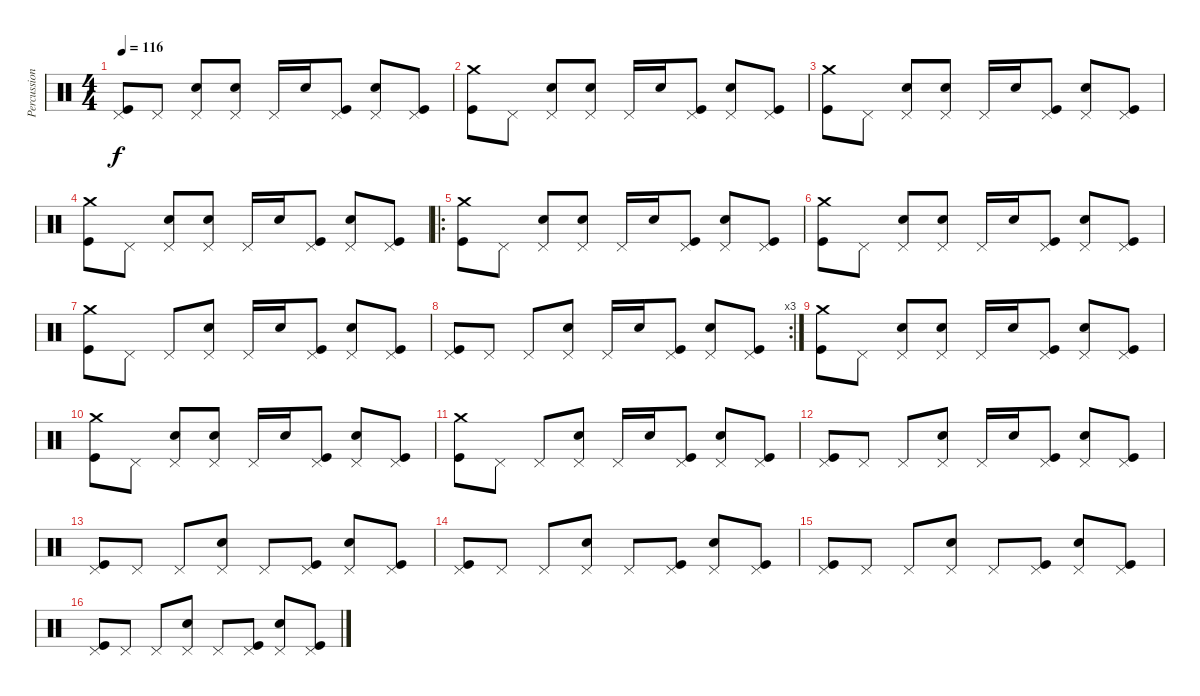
\track ("Percussions" "Percussion") {instrument percussion}
\staff {score}
\articulation defaults
\ts (4 4)
\tempo 116
\clef neutral
\ks c
("Pedal Hi-Hat (hit)" "Kick (hit)").8{dy f} "Pedal Hi-Hat (hit)".8 ("Pedal Hi-Hat (hit)" "Snare (hit) 2").8 ("Pedal Hi-Hat (hit)" "Snare (hit) 2").8 "Pedal Hi-Hat (hit)".16 "Snare (hit) 2".16 ("Pedal Hi-Hat (hit)" "Kick (hit)").8 ("Pedal Hi-Hat (hit)" "Snare (hit) 2").8 ("Pedal Hi-Hat (hit)" "Kick (hit)").8 |
("Crash medium (hit)" "Kick (hit)").8 "Pedal Hi-Hat (hit)".8 ("Pedal Hi-Hat (hit)" "Snare (hit) 2").8 ("Pedal Hi-Hat (hit)" "Snare (hit) 2").8 "Pedal Hi-Hat (hit)".16 "Snare (hit) 2".16 ("Pedal Hi-Hat (hit)" "Kick (hit)").8 ("Pedal Hi-Hat (hit)" "Snare (hit) 2").8 ("Pedal Hi-Hat (hit)" "Kick (hit)").8 |
("Crash medium (hit)" "Kick (hit)").8 "Pedal Hi-Hat (hit)".8 ("Pedal Hi-Hat (hit)" "Snare (hit) 2").8 ("Pedal Hi-Hat (hit)" "Snare (hit) 2").8 "Pedal Hi-Hat (hit)".16 "Snare (hit) 2".16 ("Pedal Hi-Hat (hit)" "Kick (hit)").8 ("Pedal Hi-Hat (hit)" "Snare (hit) 2").8 ("Pedal Hi-Hat (hit)" "Kick (hit)").8 |
("Crash medium (hit)" "Kick (hit)").8 "Pedal Hi-Hat (hit)".8 ("Pedal Hi-Hat (hit)" "Snare (hit) 2").8 ("Pedal Hi-Hat (hit)" "Snare (hit) 2").8 "Pedal Hi-Hat (hit)".16 "Snare (hit) 2".16 ("Pedal Hi-Hat (hit)" "Kick (hit)").8 ("Pedal Hi-Hat (hit)" "Snare (hit) 2").8 ("Pedal Hi-Hat (hit)" "Kick (hit)").8 |
\ro
("Crash medium (hit)" "Kick (hit)").8 "Pedal Hi-Hat (hit)".8 ("Pedal Hi-Hat (hit)" "Snare (hit) 2").8 ("Pedal Hi-Hat (hit)" "Snare (hit) 2").8 "Pedal Hi-Hat (hit)".16 "Snare (hit) 2".16 ("Pedal Hi-Hat (hit)" "Kick (hit)").8 ("Pedal Hi-Hat (hit)" "Snare (hit) 2").8 ("Pedal Hi-Hat (hit)" "Kick (hit)").8 |
("Crash medium (hit)" "Kick (hit)").8 "Pedal Hi-Hat (hit)".8 ("Pedal Hi-Hat (hit)" "Snare (hit) 2").8 ("Pedal Hi-Hat (hit)" "Snare (hit) 2").8 "Pedal Hi-Hat (hit)".16 "Snare (hit) 2".16 ("Pedal Hi-Hat (hit)" "Kick (hit)").8 ("Pedal Hi-Hat (hit)" "Snare (hit) 2").8 ("Pedal Hi-Hat (hit)" "Kick (hit)").8 |
("Crash medium (hit)" "Kick (hit)").8 "Pedal Hi-Hat (hit)".8 "Pedal Hi-Hat (hit)".8 ("Pedal Hi-Hat (hit)" "Snare (hit) 2").8 "Pedal Hi-Hat (hit)".16 "Snare (hit) 2".16 ("Pedal Hi-Hat (hit)" "Kick (hit)").8 ("Pedal Hi-Hat (hit)" "Snare (hit) 2").8 ("Pedal Hi-Hat (hit)" "Kick (hit)").8 |
\rc 3
("Pedal Hi-Hat (hit)" "Kick (hit)").8 "Pedal Hi-Hat (hit)".8 "Pedal Hi-Hat (hit)".8 ("Pedal Hi-Hat (hit)" "Snare (hit) 2").8 "Pedal Hi-Hat (hit)".16 "Snare (hit) 2".16 ("Pedal Hi-Hat (hit)" "Kick (hit)").8 ("Pedal Hi-Hat (hit)" "Snare (hit) 2").8 ("Pedal Hi-Hat (hit)" "Kick (hit)").8 |
("Crash medium (hit)" "Kick (hit)").8 "Pedal Hi-Hat (hit)".8 ("Pedal Hi-Hat (hit)" "Snare (hit) 2").8 ("Pedal Hi-Hat (hit)" "Snare (hit) 2").8 "Pedal Hi-Hat (hit)".16 "Snare (hit) 2".16 ("Pedal Hi-Hat (hit)" "Kick (hit)").8 ("Pedal Hi-Hat (hit)" "Snare (hit) 2").8 ("Pedal Hi-Hat (hit)" "Kick (hit)").8 |
("Crash medium (hit)" "Kick (hit)").8 "Pedal Hi-Hat (hit)".8 ("Pedal Hi-Hat (hit)" "Snare (hit) 2").8 ("Pedal Hi-Hat (hit)" "Snare (hit) 2").8 "Pedal Hi-Hat (hit)".16 "Snare (hit) 2".16 ("Pedal Hi-Hat (hit)" "Kick (hit)").8 ("Pedal Hi-Hat (hit)" "Snare (hit) 2").8 ("Pedal Hi-Hat (hit)" "Kick (hit)").8 |
("Crash medium (hit)" "Kick (hit)").8 "Pedal Hi-Hat (hit)".8 "Pedal Hi-Hat (hit)".8 ("Pedal Hi-Hat (hit)" "Snare (hit) 2").8 "Pedal Hi-Hat (hit)".16 "Snare (hit) 2".16 ("Pedal Hi-Hat (hit)" "Kick (hit)").8 ("Pedal Hi-Hat (hit)" "Snare (hit) 2").8 ("Pedal Hi-Hat (hit)" "Kick (hit)").8 |
("Pedal Hi-Hat (hit)" "Kick (hit)").8 "Pedal Hi-Hat (hit)".8 "Pedal Hi-Hat (hit)".8 ("Pedal Hi-Hat (hit)" "Snare (hit) 2").8 "Pedal Hi-Hat (hit)".16 "Snare (hit) 2".16 ("Pedal Hi-Hat (hit)" "Kick (hit)").8 ("Pedal Hi-Hat (hit)" "Snare (hit) 2").8 ("Pedal Hi-Hat (hit)" "Kick (hit)").8 |
("Pedal Hi-Hat (hit)" "Kick (hit)").8 "Pedal Hi-Hat (hit)".8 "Pedal Hi-Hat (hit)".8 ("Pedal Hi-Hat (hit)" "Snare (hit) 2").8 "Pedal Hi-Hat (hit)".8 ("Pedal Hi-Hat (hit)" "Kick (hit)").8 ("Pedal Hi-Hat (hit)" "Snare (hit) 2").8 ("Pedal Hi-Hat (hit)" "Kick (hit)").8 |
("Pedal Hi-Hat (hit)" "Kick (hit)").8 "Pedal Hi-Hat (hit)".8 "Pedal Hi-Hat (hit)".8 ("Pedal Hi-Hat (hit)" "Snare (hit) 2").8 "Pedal Hi-Hat (hit)".8 ("Pedal Hi-Hat (hit)" "Kick (hit)").8 ("Pedal Hi-Hat (hit)" "Snare (hit) 2").8 ("Pedal Hi-Hat (hit)" "Kick (hit)").8 |
("Pedal Hi-Hat (hit)" "Kick (hit)").8 "Pedal Hi-Hat (hit)".8 "Pedal Hi-Hat (hit)".8 ("Pedal Hi-Hat (hit)" "Snare (hit) 2").8 "Pedal Hi-Hat (hit)".8 ("Pedal Hi-Hat (hit)" "Kick (hit)").8 ("Pedal Hi-Hat (hit)" "Snare (hit) 2").8 ("Pedal Hi-Hat (hit)" "Kick (hit)").8 |
("Pedal Hi-Hat (hit)" "Kick (hit)").8 "Pedal Hi-Hat (hit)".8 "Pedal Hi-Hat (hit)".8 ("Pedal Hi-Hat (hit)" "Snare (hit) 2").8 "Pedal Hi-Hat (hit)".8 ("Pedal Hi-Hat (hit)" "Kick (hit)").8 ("Pedal Hi-Hat (hit)" "Snare (hit) 2").8 ("Pedal Hi-Hat (hit)" "Kick (hit)").8
